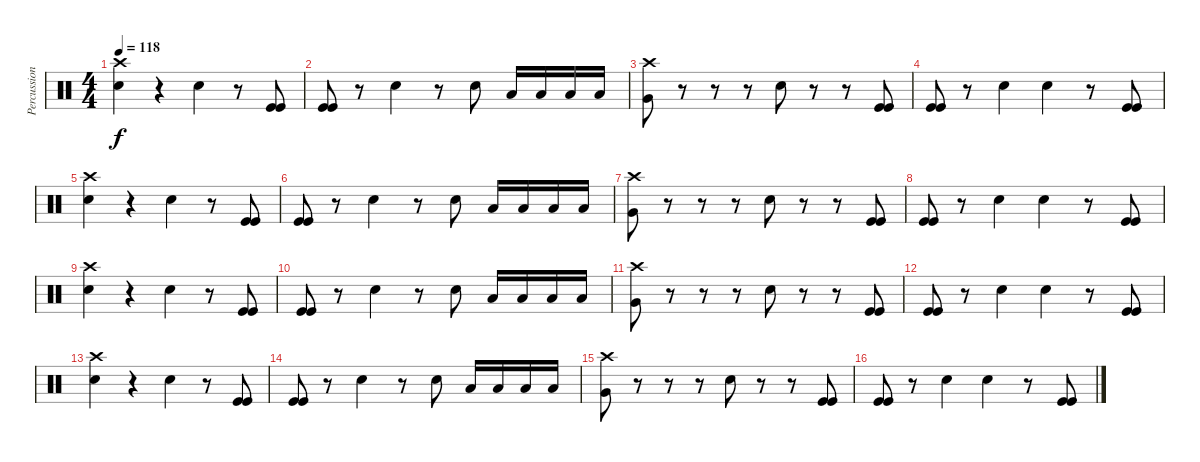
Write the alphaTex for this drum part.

\track ("Percussion" "Percussion") {instrument percussion}
\staff {score}
\articulation defaults
\ts (4 4)
\tempo 118
\clef neutral
\ks c
("Crash high (hit)" "Electric Snare (hit)").4{dy f} r.4 "Electric Snare (hit)".4 r.8 ("Kick (hit)" "Kick (hit)").8 |
("Kick (hit)" "Kick (hit)").8 r.8 "Electric Snare (hit)".4 r.8 "Electric Snare (hit)".8 "Low Tom (hit)".16 "Low Floor Tom (hit)".16 "Low Tom (hit)".16 "Low Floor Tom (hit)".16 |
("Crash high (hit)" "Very Low Tom (hit)").8 r.8 r.8 r.8 "Electric Snare (hit)".8 r.8 r.8 ("Kick (hit)" "Kick (hit)").8 |
("Kick (hit)" "Kick (hit)").8 r.8 "Electric Snare (hit)".4 "Electric Snare (hit)".4 r.8 ("Kick (hit)" "Kick (hit)").8 |
("Crash high (hit)" "Electric Snare (hit)").4 r.4 "Electric Snare (hit)".4 r.8 ("Kick (hit)" "Kick (hit)").8 |
("Kick (hit)" "Kick (hit)").8 r.8 "Electric Snare (hit)".4 r.8 "Electric Snare (hit)".8 "Low Tom (hit)".16 "Low Floor Tom (hit)".16 "Low Tom (hit)".16 "Low Floor Tom (hit)".16 |
("Crash high (hit)" "Very Low Tom (hit)").8 r.8 r.8 r.8 "Electric Snare (hit)".8 r.8 r.8 ("Kick (hit)" "Kick (hit)").8 |
("Kick (hit)" "Kick (hit)").8 r.8 "Electric Snare (hit)".4 "Electric Snare (hit)".4 r.8 ("Kick (hit)" "Kick (hit)").8 |
("Crash high (hit)" "Electric Snare (hit)").4 r.4 "Electric Snare (hit)".4 r.8 ("Kick (hit)" "Kick (hit)").8 |
("Kick (hit)" "Kick (hit)").8 r.8 "Electric Snare (hit)".4 r.8 "Electric Snare (hit)".8 "Low Tom (hit)".16 "Low Floor Tom (hit)".16 "Low Tom (hit)".16 "Low Floor Tom (hit)".16 |
("Crash high (hit)" "Very Low Tom (hit)").8 r.8 r.8 r.8 "Electric Snare (hit)".8 r.8 r.8 ("Kick (hit)" "Kick (hit)").8 |
("Kick (hit)" "Kick (hit)").8 r.8 "Electric Snare (hit)".4 "Electric Snare (hit)".4 r.8 ("Kick (hit)" "Kick (hit)").8 |
("Crash high (hit)" "Electric Snare (hit)").4 r.4 "Electric Snare (hit)".4 r.8 ("Kick (hit)" "Kick (hit)").8 |
("Kick (hit)" "Kick (hit)").8 r.8 "Electric Snare (hit)".4 r.8 "Electric Snare (hit)".8 "Low Tom (hit)".16 "Low Floor Tom (hit)".16 "Low Tom (hit)".16 "Low Floor Tom (hit)".16 |
("Crash high (hit)" "Very Low Tom (hit)").8 r.8 r.8 r.8 "Electric Snare (hit)".8 r.8 r.8 ("Kick (hit)" "Kick (hit)").8 |
("Kick (hit)" "Kick (hit)").8 r.8 "Electric Snare (hit)".4 "Electric Snare (hit)".4 r.8 ("Kick (hit)" "Kick (hit)").8
